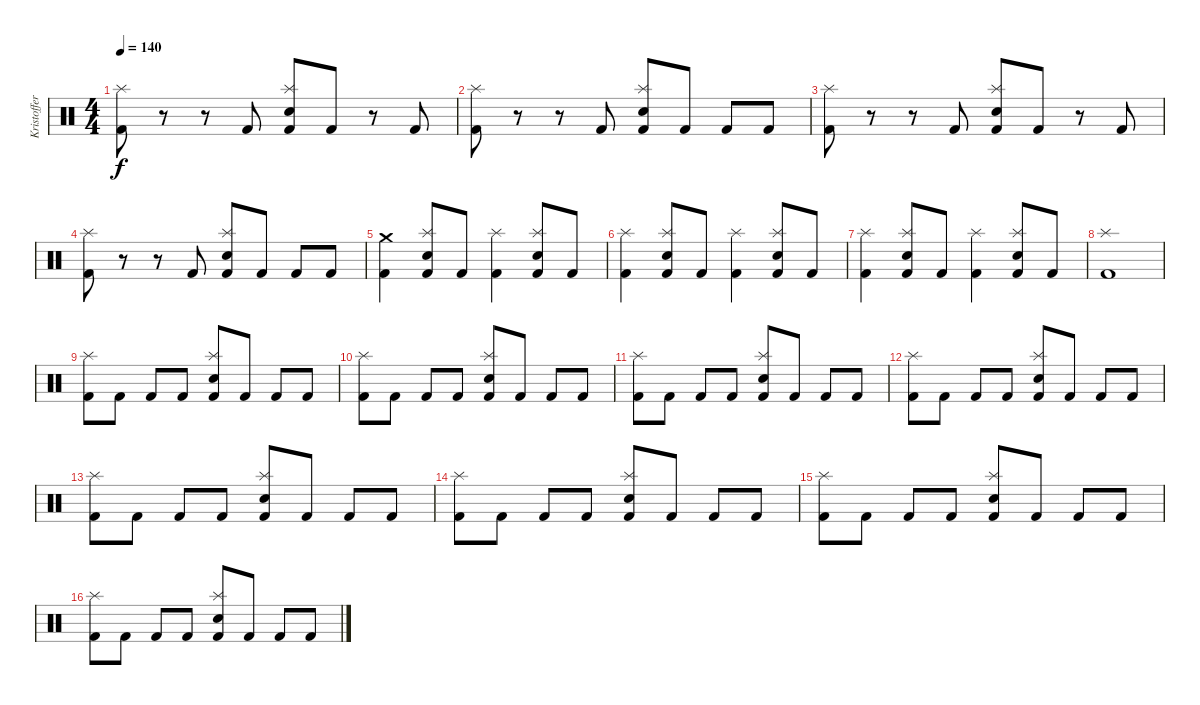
\track ("Kristoffer (Drums)" "Kristoffer") {instrument percussion}
\staff {score}
\articulation defaults
\ts (4 4)
\tempo 140
\clef neutral
\ks c
("Kick (hit) 2" "Splash (hit)").8{dy f} r.8 r.8 "Kick (hit) 2".8 ("Kick (hit) 2" "Electric Snare (hit)" "Splash (hit)").8 "Kick (hit) 2".8 r.8 "Kick (hit) 2".8 |
("Kick (hit) 2" "Splash (hit)").8 r.8 r.8 "Kick (hit) 2".8 ("Kick (hit) 2" "Electric Snare (hit)" "Splash (hit)").8 "Kick (hit) 2".8 "Kick (hit) 2".8 "Kick (hit) 2".8 |
("Kick (hit) 2" "Splash (hit)").8 r.8 r.8 "Kick (hit) 2".8 ("Kick (hit) 2" "Electric Snare (hit)" "Splash (hit)").8 "Kick (hit) 2".8 r.8 "Kick (hit) 2".8 |
("Kick (hit) 2" "Splash (hit)").8 r.8 r.8 "Kick (hit) 2".8 ("Kick (hit) 2" "Electric Snare (hit)" "Splash (hit)").8 "Kick (hit) 2".8 "Kick (hit) 2".8 "Kick (hit) 2".8 |
("Kick (hit) 2" "Crash medium (hit)").4 ("Kick (hit) 2" "Electric Snare (hit)" "Splash (hit)").8 "Kick (hit) 2".8 ("Kick (hit) 2" "Splash (hit)").4 ("Kick (hit) 2" "Electric Snare (hit)" "Splash (hit)").8 "Kick (hit) 2".8 |
("Kick (hit) 2" "Splash (hit)").4 ("Kick (hit) 2" "Electric Snare (hit)" "Splash (hit)").8 "Kick (hit) 2".8 ("Kick (hit) 2" "Splash (hit)").4 ("Kick (hit) 2" "Electric Snare (hit)" "Splash (hit)").8 "Kick (hit) 2".8 |
("Kick (hit) 2" "Splash (hit)").4 ("Kick (hit) 2" "Electric Snare (hit)" "Splash (hit)").8 "Kick (hit) 2".8 ("Kick (hit) 2" "Splash (hit)").4 ("Kick (hit) 2" "Electric Snare (hit)" "Splash (hit)").8 "Kick (hit) 2".8 |
("Kick (hit) 2" "Splash (hit)").1 |
("Kick (hit) 2" "Splash (hit)").8 "Kick (hit) 2".8 "Kick (hit) 2".8 "Kick (hit) 2".8 ("Kick (hit) 2" "Electric Snare (hit)" "Splash (hit)").8 "Kick (hit) 2".8 "Kick (hit) 2".8 "Kick (hit) 2".8 |
("Kick (hit) 2" "Splash (hit)").8 "Kick (hit) 2".8 "Kick (hit) 2".8 "Kick (hit) 2".8 ("Kick (hit) 2" "Electric Snare (hit)" "Splash (hit)").8 "Kick (hit) 2".8 "Kick (hit) 2".8 "Kick (hit) 2".8 |
("Kick (hit) 2" "Splash (hit)").8 "Kick (hit) 2".8 "Kick (hit) 2".8 "Kick (hit) 2".8 ("Kick (hit) 2" "Electric Snare (hit)" "Splash (hit)").8 "Kick (hit) 2".8 "Kick (hit) 2".8 "Kick (hit) 2".8 |
("Kick (hit) 2" "Splash (hit)").8 "Kick (hit) 2".8 "Kick (hit) 2".8 "Kick (hit) 2".8 ("Kick (hit) 2" "Electric Snare (hit)" "Splash (hit)").8 "Kick (hit) 2".8 "Kick (hit) 2".8 "Kick (hit) 2".8 |
("Kick (hit) 2" "Splash (hit)").8 "Kick (hit) 2".8 "Kick (hit) 2".8 "Kick (hit) 2".8 ("Kick (hit) 2" "Electric Snare (hit)" "Splash (hit)").8 "Kick (hit) 2".8 "Kick (hit) 2".8 "Kick (hit) 2".8 |
("Kick (hit) 2" "Splash (hit)").8 "Kick (hit) 2".8 "Kick (hit) 2".8 "Kick (hit) 2".8 ("Kick (hit) 2" "Electric Snare (hit)" "Splash (hit)").8 "Kick (hit) 2".8 "Kick (hit) 2".8 "Kick (hit) 2".8 |
("Kick (hit) 2" "Splash (hit)").8 "Kick (hit) 2".8 "Kick (hit) 2".8 "Kick (hit) 2".8 ("Kick (hit) 2" "Electric Snare (hit)" "Splash (hit)").8 "Kick (hit) 2".8 "Kick (hit) 2".8 "Kick (hit) 2".8 |
("Kick (hit) 2" "Splash (hit)").8 "Kick (hit) 2".8 "Kick (hit) 2".8 "Kick (hit) 2".8 ("Kick (hit) 2" "Electric Snare (hit)" "Splash (hit)").8 "Kick (hit) 2".8 "Kick (hit) 2".8 "Kick (hit) 2".8
